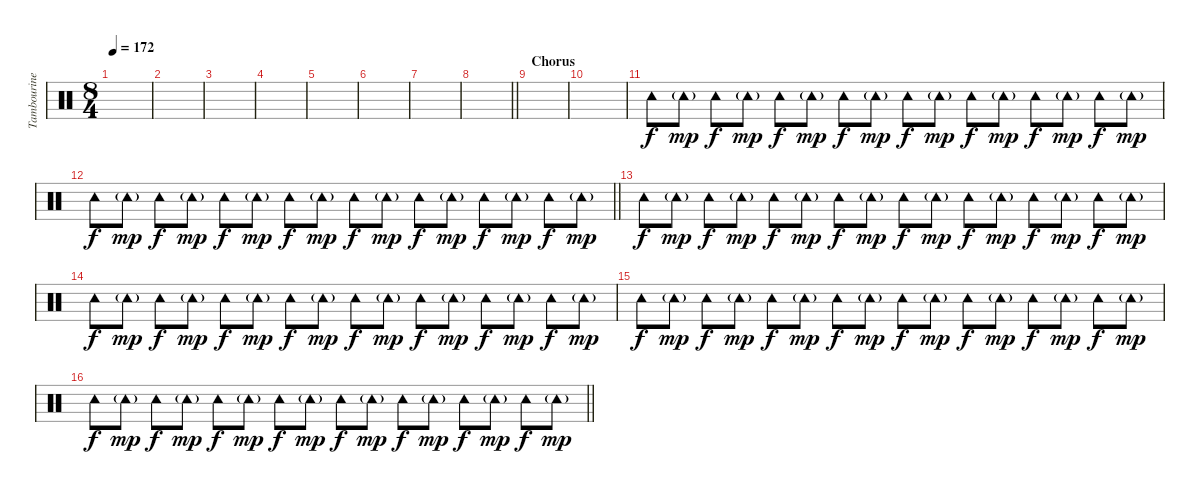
\track ("Tambourine" "Tambourine") {instrument percussion}
\staff {score}
\articulation defaults
\ts (8 4)
\tempo 172
\clef neutral
\ks c
|
|
|
|
|
|
|
\barLineRight lightlight
|
\section ("" "Chorus")
|
|
"Tambourine (hit)".8{volume 8} "Tambourine (hit)"{g}.8{dy mp} "Tambourine (hit)".8{dy f} "Tambourine (hit)"{g}.8{dy mp} "Tambourine (hit)".8{dy f} "Tambourine (hit)"{g}.8{dy mp} "Tambourine (hit)".8{dy f} "Tambourine (hit)"{g}.8{dy mp} "Tambourine (hit)".8{dy f} "Tambourine (hit)"{g}.8{dy mp} "Tambourine (hit)".8{dy f} "Tambourine (hit)"{g}.8{dy mp} "Tambourine (hit)".8{dy f} "Tambourine (hit)"{g}.8{dy mp} "Tambourine (hit)".8{dy f} "Tambourine (hit)"{g}.8{dy mp} |
\barLineRight lightlight "Tambourine (hit)".8{dy f} "Tambourine (hit)"{g}.8{dy mp} "Tambourine (hit)".8{dy f} "Tambourine (hit)"{g}.8{dy mp} "Tambourine (hit)".8{dy f} "Tambourine (hit)"{g}.8{dy mp} "Tambourine (hit)".8{dy f} "Tambourine (hit)"{g}.8{dy mp} "Tambourine (hit)".8{dy f} "Tambourine (hit)"{g}.8{dy mp} "Tambourine (hit)".8{dy f} "Tambourine (hit)"{g}.8{dy mp} "Tambourine (hit)".8{dy f} "Tambourine (hit)"{g}.8{dy mp} "Tambourine (hit)".8{dy f} "Tambourine (hit)"{g}.8{dy mp}
|
"Tambourine (hit)".8{dy f} "Tambourine (hit)"{g}.8{dy mp} "Tambourine (hit)".8{dy f} "Tambourine (hit)"{g}.8{dy mp} "Tambourine (hit)".8{dy f} "Tambourine (hit)"{g}.8{dy mp} "Tambourine (hit)".8{dy f} "Tambourine (hit)"{g}.8{dy mp} "Tambourine (hit)".8{dy f} "Tambourine (hit)"{g}.8{dy mp} "Tambourine (hit)".8{dy f} "Tambourine (hit)"{g}.8{dy mp} "Tambourine (hit)".8{dy f} "Tambourine (hit)"{g}.8{dy mp} "Tambourine (hit)".8{dy f} "Tambourine (hit)"{g}.8{dy mp} |
"Tambourine (hit)".8{dy f} "Tambourine (hit)"{g}.8{dy mp} "Tambourine (hit)".8{dy f} "Tambourine (hit)"{g}.8{dy mp} "Tambourine (hit)".8{dy f} "Tambourine (hit)"{g}.8{dy mp} "Tambourine (hit)".8{dy f} "Tambourine (hit)"{g}.8{dy mp} "Tambourine (hit)".8{dy f} "Tambourine (hit)"{g}.8{dy mp} "Tambourine (hit)".8{dy f} "Tambourine (hit)"{g}.8{dy mp} "Tambourine (hit)".8{dy f} "Tambourine (hit)"{g}.8{dy mp} "Tambourine (hit)".8{dy f} "Tambourine (hit)"{g}.8{dy mp} |
"Tambourine (hit)".8{dy f} "Tambourine (hit)"{g}.8{dy mp} "Tambourine (hit)".8{dy f} "Tambourine (hit)"{g}.8{dy mp} "Tambourine (hit)".8{dy f} "Tambourine (hit)"{g}.8{dy mp} "Tambourine (hit)".8{dy f} "Tambourine (hit)"{g}.8{dy mp} "Tambourine (hit)".8{dy f} "Tambourine (hit)"{g}.8{dy mp} "Tambourine (hit)".8{dy f} "Tambourine (hit)"{g}.8{dy mp} "Tambourine (hit)".8{dy f} "Tambourine (hit)"{g}.8{dy mp} "Tambourine (hit)".8{dy f} "Tambourine (hit)"{g}.8{dy mp} |
\barLineRight lightlight "Tambourine (hit)".8{dy f} "Tambourine (hit)"{g}.8{dy mp} "Tambourine (hit)".8{dy f} "Tambourine (hit)"{g}.8{dy mp} "Tambourine (hit)".8{dy f} "Tambourine (hit)"{g}.8{dy mp} "Tambourine (hit)".8{dy f} "Tambourine (hit)"{g}.8{dy mp} "Tambourine (hit)".8{dy f} "Tambourine (hit)"{g}.8{dy mp} "Tambourine (hit)".8{dy f} "Tambourine (hit)"{g}.8{dy mp} "Tambourine (hit)".8{dy f} "Tambourine (hit)"{g}.8{dy mp} "Tambourine (hit)".8{dy f} "Tambourine (hit)"{g}.8{dy mp}
